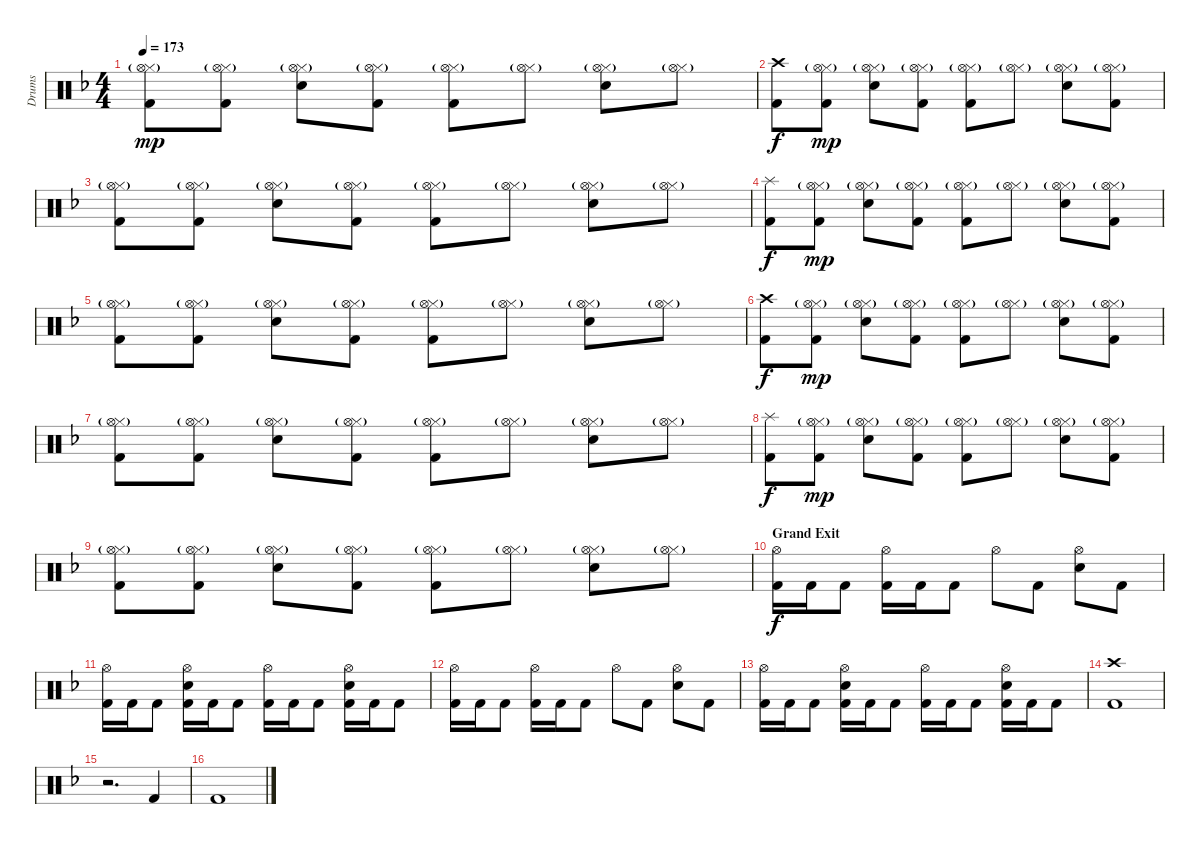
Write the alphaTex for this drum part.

\track ("Drums" "Drums") {instrument percussion}
\staff {score}
\articulation defaults
\ts (4 4)
\tempo 173
\clef neutral
\ks dminor
("Hi-Hat (closed)"{g} "Hi-Hat (open)"{g} "Kick (hit) 2").8{dy mp} ("Hi-Hat (closed)"{g} "Hi-Hat (open)"{g} "Kick (hit) 2").8 ("Hi-Hat (closed)"{g} "Hi-Hat (open)"{g} "Snare (hit) 2").8 ("Hi-Hat (closed)"{g} "Hi-Hat (open)"{g} "Kick (hit) 2").8 ("Hi-Hat (closed)"{g} "Hi-Hat (open)"{g} "Kick (hit) 2").8 ("Hi-Hat (closed)"{g} "Hi-Hat (open)"{g}).8 ("Hi-Hat (closed)"{g} "Hi-Hat (open)"{g} "Snare (hit) 2").8 ("Hi-Hat (closed)"{g} "Hi-Hat (open)"{g}).8 |
("Crash high (hit)" "Kick (hit) 2").8{dy f} ("Hi-Hat (closed)"{g} "Hi-Hat (open)"{g} "Kick (hit) 2").8{dy mp} ("Hi-Hat (closed)"{g} "Hi-Hat (open)"{g} "Snare (hit) 2").8 ("Hi-Hat (closed)"{g} "Hi-Hat (open)"{g} "Kick (hit) 2").8 ("Hi-Hat (closed)"{g} "Hi-Hat (open)"{g} "Kick (hit) 2").8 ("Hi-Hat (closed)"{g} "Hi-Hat (open)"{g}).8 ("Hi-Hat (closed)"{g} "Hi-Hat (open)"{g} "Snare (hit) 2").8 ("Hi-Hat (closed)"{g} "Hi-Hat (open)"{g} "Kick (hit) 2").8 |
("Hi-Hat (closed)"{g} "Hi-Hat (open)"{g} "Kick (hit) 2").8 ("Hi-Hat (closed)"{g} "Hi-Hat (open)"{g} "Kick (hit) 2").8 ("Hi-Hat (closed)"{g} "Hi-Hat (open)"{g} "Snare (hit) 2").8 ("Hi-Hat (closed)"{g} "Hi-Hat (open)"{g} "Kick (hit) 2").8 ("Hi-Hat (closed)"{g} "Hi-Hat (open)"{g} "Kick (hit) 2").8 ("Hi-Hat (closed)"{g} "Hi-Hat (open)"{g}).8 ("Hi-Hat (closed)"{g} "Hi-Hat (open)"{g} "Snare (hit) 2").8 ("Hi-Hat (closed)"{g} "Hi-Hat (open)"{g}).8 |
("Splash (hit)" "Kick (hit) 2").8{dy f} ("Hi-Hat (closed)"{g} "Hi-Hat (open)"{g} "Kick (hit) 2").8{dy mp} ("Hi-Hat (closed)"{g} "Hi-Hat (open)"{g} "Snare (hit) 2").8 ("Hi-Hat (closed)"{g} "Hi-Hat (open)"{g} "Kick (hit) 2").8 ("Hi-Hat (closed)"{g} "Hi-Hat (open)"{g} "Kick (hit) 2").8 ("Hi-Hat (closed)"{g} "Hi-Hat (open)"{g}).8 ("Hi-Hat (closed)"{g} "Hi-Hat (open)"{g} "Snare (hit) 2").8 ("Hi-Hat (closed)"{g} "Hi-Hat (open)"{g} "Kick (hit) 2").8 |
("Hi-Hat (closed)"{g} "Hi-Hat (open)"{g} "Kick (hit) 2").8 ("Hi-Hat (closed)"{g} "Hi-Hat (open)"{g} "Kick (hit) 2").8 ("Hi-Hat (closed)"{g} "Hi-Hat (open)"{g} "Snare (hit) 2").8 ("Hi-Hat (closed)"{g} "Hi-Hat (open)"{g} "Kick (hit) 2").8 ("Hi-Hat (closed)"{g} "Hi-Hat (open)"{g} "Kick (hit) 2").8 ("Hi-Hat (closed)"{g} "Hi-Hat (open)"{g}).8 ("Hi-Hat (closed)"{g} "Hi-Hat (open)"{g} "Snare (hit) 2").8 ("Hi-Hat (closed)"{g} "Hi-Hat (open)"{g}).8 |
("Crash high (hit)" "Kick (hit) 2").8{dy f} ("Hi-Hat (closed)"{g} "Hi-Hat (open)"{g} "Kick (hit) 2").8{dy mp} ("Hi-Hat (closed)"{g} "Hi-Hat (open)"{g} "Snare (hit) 2").8 ("Hi-Hat (closed)"{g} "Hi-Hat (open)"{g} "Kick (hit) 2").8 ("Hi-Hat (closed)"{g} "Hi-Hat (open)"{g} "Kick (hit) 2").8 ("Hi-Hat (closed)"{g} "Hi-Hat (open)"{g}).8 ("Hi-Hat (closed)"{g} "Hi-Hat (open)"{g} "Snare (hit) 2").8 ("Hi-Hat (closed)"{g} "Hi-Hat (open)"{g} "Kick (hit) 2").8 |
("Hi-Hat (closed)"{g} "Hi-Hat (open)"{g} "Kick (hit) 2").8 ("Hi-Hat (closed)"{g} "Hi-Hat (open)"{g} "Kick (hit) 2").8 ("Hi-Hat (closed)"{g} "Hi-Hat (open)"{g} "Snare (hit) 2").8 ("Hi-Hat (closed)"{g} "Hi-Hat (open)"{g} "Kick (hit) 2").8 ("Hi-Hat (closed)"{g} "Hi-Hat (open)"{g} "Kick (hit) 2").8 ("Hi-Hat (closed)"{g} "Hi-Hat (open)"{g}).8 ("Hi-Hat (closed)"{g} "Hi-Hat (open)"{g} "Snare (hit) 2").8 ("Hi-Hat (closed)"{g} "Hi-Hat (open)"{g}).8 |
("Splash (hit)" "Kick (hit) 2").8{dy f} ("Hi-Hat (closed)"{g} "Hi-Hat (open)"{g} "Kick (hit) 2").8{dy mp} ("Hi-Hat (closed)"{g} "Hi-Hat (open)"{g} "Snare (hit) 2").8 ("Hi-Hat (closed)"{g} "Hi-Hat (open)"{g} "Kick (hit) 2").8 ("Hi-Hat (closed)"{g} "Hi-Hat (open)"{g} "Kick (hit) 2").8 ("Hi-Hat (closed)"{g} "Hi-Hat (open)"{g}).8 ("Hi-Hat (closed)"{g} "Hi-Hat (open)"{g} "Snare (hit) 2").8 ("Hi-Hat (closed)"{g} "Hi-Hat (open)"{g} "Kick (hit) 2").8 |
("Hi-Hat (closed)"{g} "Hi-Hat (open)"{g} "Kick (hit) 2").8 ("Hi-Hat (closed)"{g} "Hi-Hat (open)"{g} "Kick (hit) 2").8 ("Hi-Hat (closed)"{g} "Hi-Hat (open)"{g} "Snare (hit) 2").8 ("Hi-Hat (closed)"{g} "Hi-Hat (open)"{g} "Kick (hit) 2").8 ("Hi-Hat (closed)"{g} "Hi-Hat (open)"{g} "Kick (hit) 2").8 ("Hi-Hat (closed)"{g} "Hi-Hat (open)"{g}).8 ("Hi-Hat (closed)"{g} "Hi-Hat (open)"{g} "Snare (hit) 2").8 ("Hi-Hat (closed)"{g} "Hi-Hat (open)"{g}).8 |
\section ("" "Grand Exit")
("Hi-Hat (open)" "Kick (hit) 2").16{dy f} "Kick (hit) 2".16 "Kick (hit) 2".8 ("Hi-Hat (open)" "Kick (hit) 2").16 "Kick (hit) 2".16 "Kick (hit) 2".8 "Hi-Hat (open)".8 "Kick (hit) 2".8 ("Hi-Hat (open)" "Snare (hit) 2").8 "Kick (hit) 2".8 |
("Hi-Hat (open)" "Kick (hit) 2").16 "Kick (hit) 2".16 "Kick (hit) 2".8 ("Hi-Hat (open)" "Snare (hit) 2" "Kick (hit) 2").16 "Kick (hit) 2".16 "Kick (hit) 2".8 ("Hi-Hat (open)" "Kick (hit) 2").16 "Kick (hit) 2".16 "Kick (hit) 2".8 ("Hi-Hat (open)" "Snare (hit) 2" "Kick (hit) 2").16 "Kick (hit) 2".16 "Kick (hit) 2".8 |
("Hi-Hat (open)" "Kick (hit) 2").16 "Kick (hit) 2".16 "Kick (hit) 2".8 ("Hi-Hat (open)" "Kick (hit) 2").16 "Kick (hit) 2".16 "Kick (hit) 2".8 "Hi-Hat (open)".8 "Kick (hit) 2".8 ("Hi-Hat (open)" "Snare (hit) 2").8 "Kick (hit) 2".8 |
("Hi-Hat (open)" "Kick (hit) 2").16 "Kick (hit) 2".16 "Kick (hit) 2".8 ("Hi-Hat (open)" "Snare (hit) 2" "Kick (hit) 2").16 "Kick (hit) 2".16 "Kick (hit) 2".8 ("Hi-Hat (open)" "Kick (hit) 2").16 "Kick (hit) 2".16 "Kick (hit) 2".8 ("Hi-Hat (open)" "Snare (hit) 2" "Kick (hit) 2").16 "Kick (hit) 2".16 "Kick (hit) 2".8 |
("Crash high (hit)" "Kick (hit) 2").1 |
r.2{d} "Kick (hit) 2".4 |
"Kick (hit) 2".1
